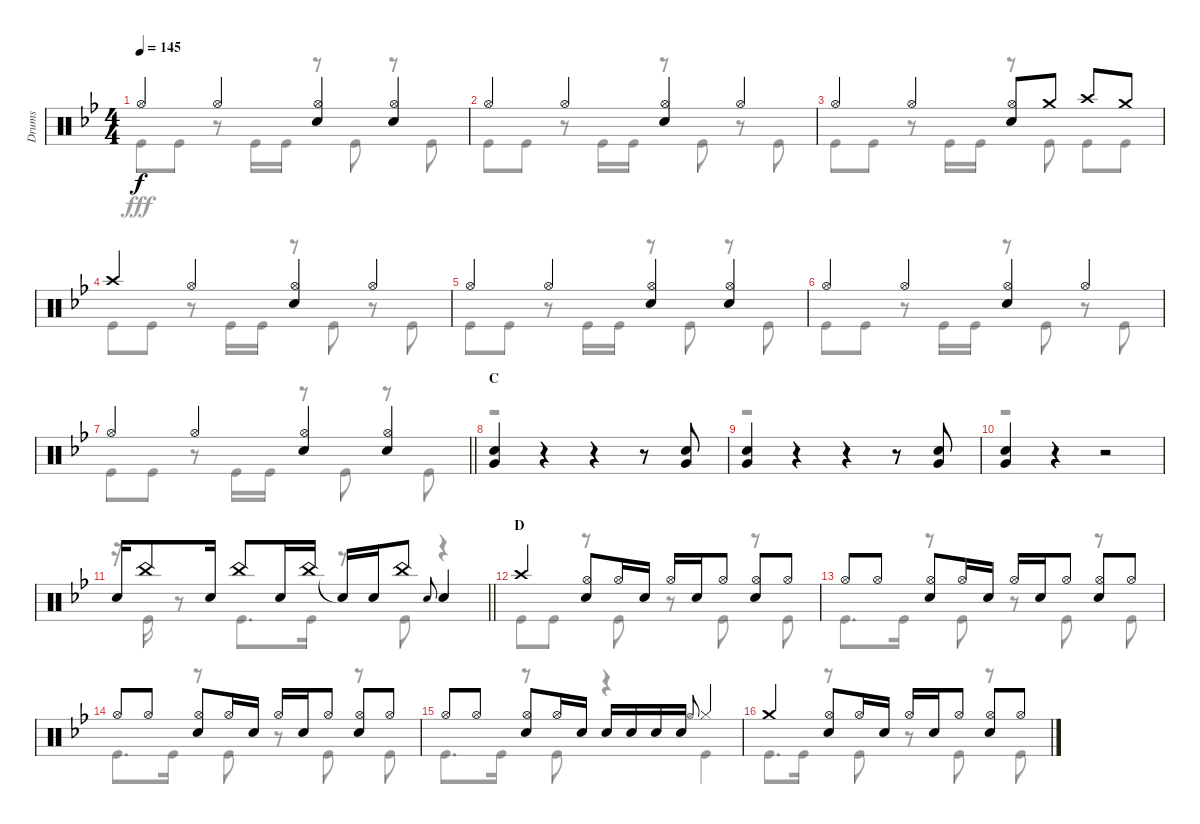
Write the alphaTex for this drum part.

\track ("Drums" "Drums") {instrument percussion}
\staff {score}
\articulation defaults
\voice
\ts (4 4)
\tempo 145
\clef neutral
\ks bb "Hi-Hat (open)".4{dy f} "Hi-Hat (open)".4
("Hi-Hat (open)" "Snare (hit) 2").4 ("Hi-Hat (open)" "Snare (hit) 2").4 |
"Hi-Hat (open)".4 "Hi-Hat (open)".4 ("Hi-Hat (open)" "Snare (hit) 2").4 "Hi-Hat (open)".4 |
"Hi-Hat (open)".4 "Hi-Hat (open)".4 ("Hi-Hat (open)" "Snare (hit) 2").8 "Crash medium (hit)".8 "Crash high (hit)".8 "Crash medium (hit)".8 |
"Crash high (hit)".4 "Hi-Hat (open)".4 ("Hi-Hat (open)" "Snare (hit) 2").4 "Hi-Hat (open)".4 |
"Hi-Hat (open)".4 "Hi-Hat (open)".4 ("Hi-Hat (open)" "Snare (hit) 2").4 ("Hi-Hat (open)" "Snare (hit) 2").4 |
"Hi-Hat (open)".4 "Hi-Hat (open)".4 ("Hi-Hat (open)" "Snare (hit) 2").4 "Hi-Hat (open)".4 |
\barLineRight lightlight "Hi-Hat (open)".4 "Hi-Hat (open)".4
("Hi-Hat (open)" "Snare (hit) 2").4 ("Hi-Hat (open)" "Snare (hit) 2").4 |
\section ("" "C")
("Snare (hit) 2" "Very Low Tom (hit)").4 r.4 r.4 r.8 ("Snare (hit) 2" "Very Low Tom (hit)").8 |
("Snare (hit) 2" "Very Low Tom (hit)").4 r.4 r.4 r.8 ("Snare (hit) 2" "Very Low Tom (hit)").8 |
("Snare (hit) 2" "Very Low Tom (hit)").4 r.4 r.2 |
\barLineRight lightlight "Snare (hit) 2".16 "China (hit)".8 "Snare (hit) 2".16 "China (hit)".8 "Snare (hit) 2".16 "China (hit)".16 "Snare (hit)"{t}.16 "Snare (hit) 2".16 "China (hit)".8 "Snare (hit) 2".8{gr onbeat} "Snare (hit) 2".4
|
\section ("" "D")
"Crash high (hit)".4 ("Hi-Hat (open)" "Snare (hit) 2").8 "Hi-Hat (open)".16 "Snare (hit) 2".16 "Hi-Hat (open)".16 "Snare (hit) 2".16 "Hi-Hat (open)".8 ("Hi-Hat (open)" "Snare (hit) 2").8 "Hi-Hat (open)".8 |
"Hi-Hat (open)".8 "Hi-Hat (open)".8 ("Hi-Hat (open)" "Snare (hit) 2").8 "Hi-Hat (open)".16 "Snare (hit) 2".16 "Hi-Hat (open)".16 "Snare (hit) 2".16 "Hi-Hat (open)".8 ("Hi-Hat (open)" "Snare (hit) 2").8 "Hi-Hat (open)".8 |
"Hi-Hat (open)".8 "Hi-Hat (open)".8 ("Hi-Hat (open)" "Snare (hit) 2").8 "Hi-Hat (open)".16 "Snare (hit) 2".16 "Hi-Hat (open)".16 "Snare (hit) 2".16 "Hi-Hat (open)".8 ("Hi-Hat (open)" "Snare (hit) 2").8 "Hi-Hat (open)".8 |
"Hi-Hat (open)".8 "Hi-Hat (open)".8 ("Hi-Hat (open)" "Snare (hit) 2").8 "Hi-Hat (open)".16 "Snare (hit) 2".16 "Snare (hit) 2".16 "Snare (hit) 2".16 "Snare (hit) 2".16 "Snare (hit) 2".16 "Hi-Hat (open)".8{gr onbeat} "Hi-Hat (closed)".4 |
"Crash medium (hit)".4 ("Hi-Hat (open)" "Snare (hit) 2").8 "Hi-Hat (open)".16 "Snare (hit) 2".16 "Hi-Hat (open)".16 "Snare (hit) 2".16 "Hi-Hat (open)".8 ("Hi-Hat (open)" "Snare (hit) 2").8 "Hi-Hat (open)".8
\voice
\clef neutral
\ottava regular
\simile none
\ks bb "Kick (hit)".8{dy fff} "Kick (hit)".8
r.8 "Kick (hit)".16 "Kick (hit)".16 r.8 "Kick (hit)".8 r.8 "Kick (hit)".8 |
"Kick (hit)".8 "Kick (hit)".8 r.8 "Kick (hit)".16 "Kick (hit)".16 r.8 "Kick (hit)".8 r.8 "Kick (hit)".8 |
"Kick (hit)".8 "Kick (hit)".8 r.8 "Kick (hit)".16 "Kick (hit)".16 r.8 "Kick (hit)".8 "Kick (hit)".8 "Kick (hit)".8 |
"Kick (hit)".8 "Kick (hit)".8 r.8 "Kick (hit)".16 "Kick (hit)".16 r.8 "Kick (hit)".8 r.8 "Kick (hit)".8 |
"Kick (hit)".8 "Kick (hit)".8 r.8 "Kick (hit)".16 "Kick (hit)".16 r.8 "Kick (hit)".8 r.8 "Kick (hit)".8 |
"Kick (hit)".8 "Kick (hit)".8 r.8 "Kick (hit)".16 "Kick (hit)".16 r.8 "Kick (hit)".8 r.8 "Kick (hit)".8 |
\barLineRight lightlight "Kick (hit)".8 "Kick (hit)".8
r.8 "Kick (hit)".16 "Kick (hit)".16 r.8 "Kick (hit)".8 r.8 "Kick (hit)".8 |
r.1 |
r.1 |
r.1 |
\barLineRight lightlight
r.16 "Kick (hit)".16 r.8 "Kick (hit)".8{d} "Kick (hit)".16 r.8 "Kick (hit)".8 r.4 |
"Kick (hit)".8 "Kick (hit)".8 r.8 "Kick (hit)".8 r.8 "Kick (hit)".8 r.8 "Kick (hit)".8 |
"Kick (hit)".8{d} "Kick (hit)".16 r.8 "Kick (hit)".8 r.8 "Kick (hit)".8 r.8 "Kick (hit)".8 |
"Kick (hit)".8{d} "Kick (hit)".16 r.8 "Kick (hit)".8 r.8 "Kick (hit)".8 r.8 "Kick (hit)".8 |
"Kick (hit)".8{d} "Kick (hit)".16 r.8 "Kick (hit)".8 r.4 "Kick (hit)".4 |
"Kick (hit)".8{d} "Kick (hit)".16 r.8 "Kick (hit)".8 r.8 "Kick (hit)".8 r.8 "Kick (hit)".8
